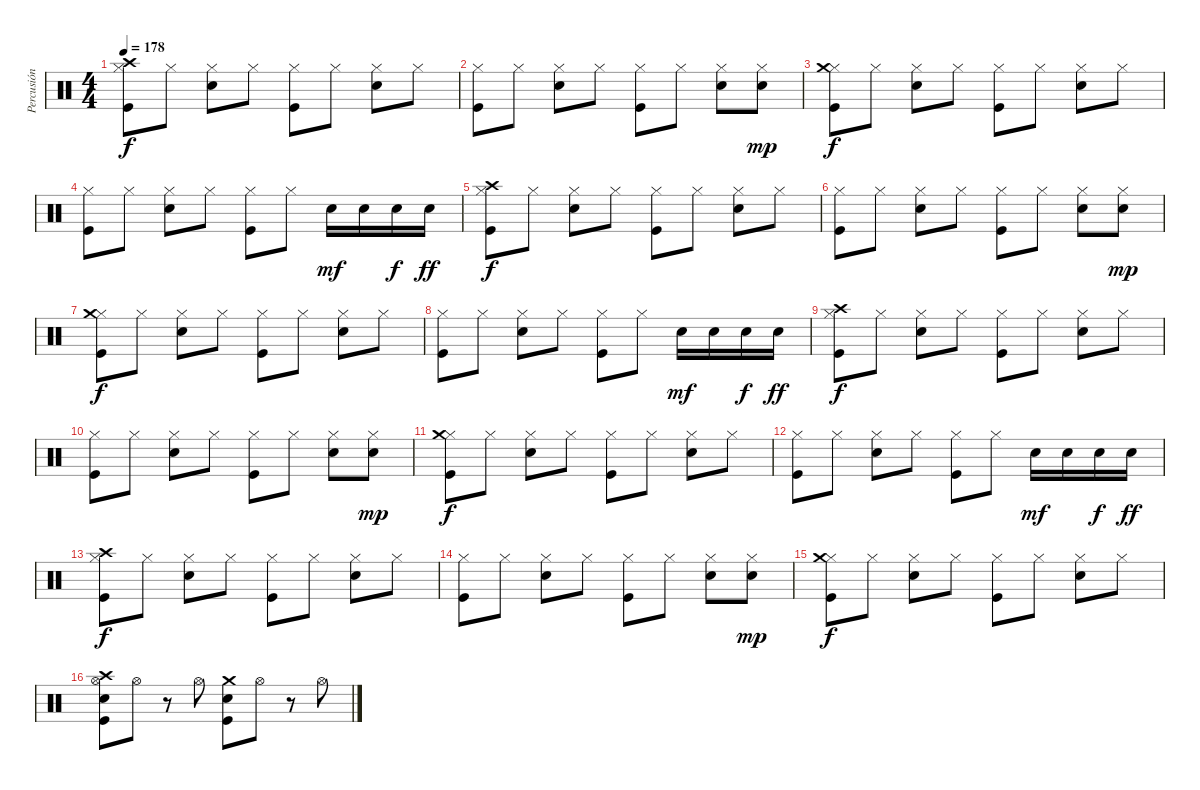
\track ("Percusión" "Percusión") {instrument percussion}
\staff {score}
\articulation defaults
\ts (4 4)
\tempo 178
\clef neutral
\ks c
("Hi-Hat (closed)" "Crash high (hit)" "Kick (hit)").8{dy f} "Hi-Hat (closed)".8 ("Hi-Hat (closed)" "Electric Snare (hit)").8 "Hi-Hat (closed)".8 ("Hi-Hat (closed)" "Kick (hit)").8 "Hi-Hat (closed)".8 ("Hi-Hat (closed)" "Electric Snare (hit)").8 "Hi-Hat (closed)".8 |
("Hi-Hat (closed)" "Kick (hit)").8 "Hi-Hat (closed)".8 ("Hi-Hat (closed)" "Electric Snare (hit)").8 "Hi-Hat (closed)".8 ("Hi-Hat (closed)" "Kick (hit)").8 "Hi-Hat (closed)".8 ("Hi-Hat (closed)" "Electric Snare (hit)").8 ("Hi-Hat (closed)" "Electric Snare (hit)").8{dy mp} |
("Hi-Hat (closed)" "Crash medium (hit)" "Kick (hit)").8{dy f} "Hi-Hat (closed)".8 ("Hi-Hat (closed)" "Electric Snare (hit)").8 "Hi-Hat (closed)".8 ("Hi-Hat (closed)" "Kick (hit)").8 "Hi-Hat (closed)".8 ("Hi-Hat (closed)" "Electric Snare (hit)").8 "Hi-Hat (closed)".8 |
("Hi-Hat (closed)" "Kick (hit)").8 "Hi-Hat (closed)".8 ("Hi-Hat (closed)" "Electric Snare (hit)").8 "Hi-Hat (closed)".8 ("Hi-Hat (closed)" "Kick (hit)").8 "Hi-Hat (closed)".8 "Electric Snare (hit)".16{dy mf} "Electric Snare (hit)".16 "Electric Snare (hit)".16{dy f} "Electric Snare (hit)".16{dy ff} |
("Hi-Hat (closed)" "Crash high (hit)" "Kick (hit)").8{dy f} "Hi-Hat (closed)".8 ("Hi-Hat (closed)" "Electric Snare (hit)").8 "Hi-Hat (closed)".8 ("Hi-Hat (closed)" "Kick (hit)").8 "Hi-Hat (closed)".8 ("Hi-Hat (closed)" "Electric Snare (hit)").8 "Hi-Hat (closed)".8 |
("Hi-Hat (closed)" "Kick (hit)").8 "Hi-Hat (closed)".8 ("Hi-Hat (closed)" "Electric Snare (hit)").8 "Hi-Hat (closed)".8 ("Hi-Hat (closed)" "Kick (hit)").8 "Hi-Hat (closed)".8 ("Hi-Hat (closed)" "Electric Snare (hit)").8 ("Hi-Hat (closed)" "Electric Snare (hit)").8{dy mp} |
("Hi-Hat (closed)" "Crash medium (hit)" "Kick (hit)").8{dy f} "Hi-Hat (closed)".8 ("Hi-Hat (closed)" "Electric Snare (hit)").8 "Hi-Hat (closed)".8 ("Hi-Hat (closed)" "Kick (hit)").8 "Hi-Hat (closed)".8 ("Hi-Hat (closed)" "Electric Snare (hit)").8 "Hi-Hat (closed)".8 |
("Hi-Hat (closed)" "Kick (hit)").8 "Hi-Hat (closed)".8 ("Hi-Hat (closed)" "Electric Snare (hit)").8 "Hi-Hat (closed)".8 ("Hi-Hat (closed)" "Kick (hit)").8 "Hi-Hat (closed)".8 "Electric Snare (hit)".16{dy mf} "Electric Snare (hit)".16 "Electric Snare (hit)".16{dy f} "Electric Snare (hit)".16{dy ff} |
("Hi-Hat (closed)" "Crash high (hit)" "Kick (hit)").8{dy f} "Hi-Hat (closed)".8 ("Hi-Hat (closed)" "Electric Snare (hit)").8 "Hi-Hat (closed)".8 ("Hi-Hat (closed)" "Kick (hit)").8 "Hi-Hat (closed)".8 ("Hi-Hat (closed)" "Electric Snare (hit)").8 "Hi-Hat (closed)".8 |
("Hi-Hat (closed)" "Kick (hit)").8 "Hi-Hat (closed)".8 ("Hi-Hat (closed)" "Electric Snare (hit)").8 "Hi-Hat (closed)".8 ("Hi-Hat (closed)" "Kick (hit)").8 "Hi-Hat (closed)".8 ("Hi-Hat (closed)" "Electric Snare (hit)").8 ("Hi-Hat (closed)" "Electric Snare (hit)").8{dy mp} |
("Hi-Hat (closed)" "Crash medium (hit)" "Kick (hit)").8{dy f} "Hi-Hat (closed)".8 ("Hi-Hat (closed)" "Electric Snare (hit)").8 "Hi-Hat (closed)".8 ("Hi-Hat (closed)" "Kick (hit)").8 "Hi-Hat (closed)".8 ("Hi-Hat (closed)" "Electric Snare (hit)").8 "Hi-Hat (closed)".8 |
("Hi-Hat (closed)" "Kick (hit)").8 "Hi-Hat (closed)".8 ("Hi-Hat (closed)" "Electric Snare (hit)").8 "Hi-Hat (closed)".8 ("Hi-Hat (closed)" "Kick (hit)").8 "Hi-Hat (closed)".8 "Electric Snare (hit)".16{dy mf} "Electric Snare (hit)".16 "Electric Snare (hit)".16{dy f} "Electric Snare (hit)".16{dy ff} |
("Hi-Hat (closed)" "Crash high (hit)" "Kick (hit)").8{dy f} "Hi-Hat (closed)".8 ("Hi-Hat (closed)" "Electric Snare (hit)").8 "Hi-Hat (closed)".8 ("Hi-Hat (closed)" "Kick (hit)").8 "Hi-Hat (closed)".8 ("Hi-Hat (closed)" "Electric Snare (hit)").8 "Hi-Hat (closed)".8 |
("Hi-Hat (closed)" "Kick (hit)").8 "Hi-Hat (closed)".8 ("Hi-Hat (closed)" "Electric Snare (hit)").8 "Hi-Hat (closed)".8 ("Hi-Hat (closed)" "Kick (hit)").8 "Hi-Hat (closed)".8 ("Hi-Hat (closed)" "Electric Snare (hit)").8 ("Hi-Hat (closed)" "Electric Snare (hit)").8{dy mp} |
("Hi-Hat (closed)" "Crash medium (hit)" "Kick (hit)").8{dy f} "Hi-Hat (closed)".8 ("Hi-Hat (closed)" "Electric Snare (hit)").8 "Hi-Hat (closed)".8 ("Hi-Hat (closed)" "Kick (hit)").8 "Hi-Hat (closed)".8 ("Hi-Hat (closed)" "Electric Snare (hit)").8 "Hi-Hat (closed)".8 |
("Hi-Hat (open)" "Crash high (hit)" "Electric Snare (hit)" "Kick (hit)").8 "Hi-Hat (open)".8 r.8 "Hi-Hat (open)".8 ("Crash medium (hit)" "Electric Snare (hit)" "Kick (hit)").8 "Hi-Hat (open)".8 r.8 "Hi-Hat (open)".8
